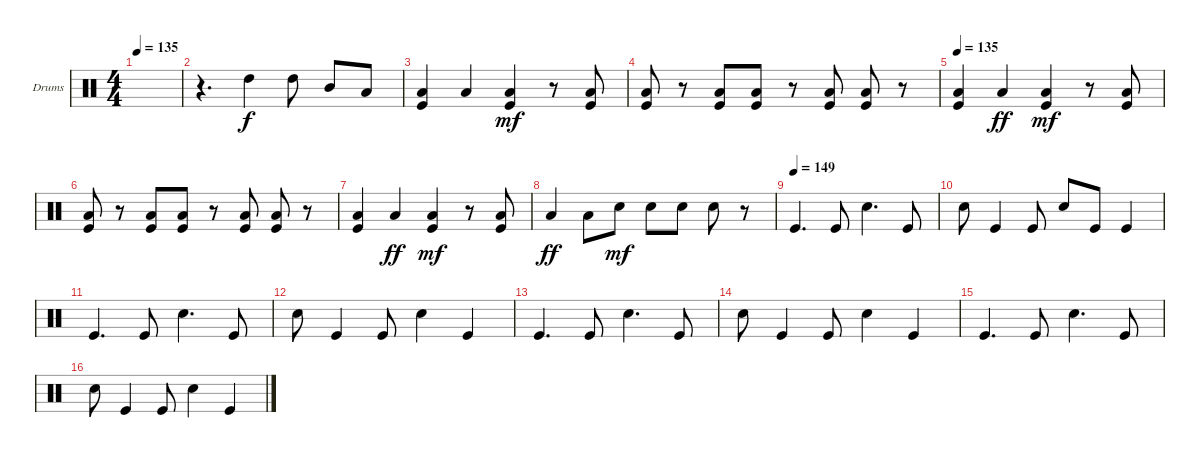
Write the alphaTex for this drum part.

\defaultSystemsLayout 4
\bracketExtendMode groupsimilarinstruments
\firstSystemTrackNameOrientation horizontal
\otherSystemsTrackNameOrientation horizontal
\track ("Drumkit" "Drums") {instrument percussion}
\staff {score}
\articulation defaults
\ts (4 4)
\tempo 135
\clef neutral
\scale
0.472222
\ks c
|
\scale
0.263889 r.4{d} "High Tom (hit)".4 "High Tom (hit)".8 "Mid Tom (hit)".8 "Low Tom (hit)".8 |
\scale
0.263889 ("Low Tom (hit)" "Kick (hit)").4 "Low Tom (hit)".4{dy f} ("Low Tom (hit)" "Kick (hit)").4{dy mf} r.8 ("Kick (hit)" "Low Tom (hit)").8 |
\scale
0.333333 ("Kick (hit)" "Low Tom (hit)").8 r.8 ("Kick (hit)" "Low Tom (hit)").8 ("Kick (hit)" "Low Tom (hit)").8 r.8 ("Kick (hit)" "Low Tom (hit)").8 ("Kick (hit)" "Low Tom (hit)").8 r.8 |
\tempo 135
\scale
0.333333 ("Low Tom (hit)" "Kick (hit)").4 "Low Tom (hit)".4{dy ff} ("Low Tom (hit)" "Kick (hit)").4{dy mf} r.8 ("Kick (hit)" "Low Tom (hit)").8 |
\scale
0.333333 ("Kick (hit)" "Low Tom (hit)").8 r.8 ("Kick (hit)" "Low Tom (hit)").8 ("Kick (hit)" "Low Tom (hit)").8 r.8 ("Kick (hit)" "Low Tom (hit)").8 ("Kick (hit)" "Low Tom (hit)").8 r.8 |
\scale
0.333333 ("Low Tom (hit)" "Kick (hit)").4 "Low Tom (hit)".4{dy ff} ("Low Tom (hit)" "Kick (hit)").4{dy mf} r.8 ("Kick (hit)" "Low Tom (hit)").8 |
\scale
0.333333 "Low Tom (hit)".4{dy ff} "Low Tom (hit)".8 "Snare (hit) 2".8{dy mf} "Snare (hit) 2".8 "Snare (hit) 2".8 "Snare (hit) 2".8 r.8 |
\tempo 149
\scale
0.333333 "Kick (hit)".4{d} "Kick (hit)".8 "Snare (hit) 2".4{d} "Kick (hit)".8 |
\scale
0.333333 "Snare (hit) 2".8 "Kick (hit)".4 "Kick (hit)".8 "Snare (hit) 2".8 "Kick (hit)".8 "Kick (hit)".4 |
\scale
0.333333 "Kick (hit)".4{d} "Kick (hit)".8 "Snare (hit) 2".4{d} "Kick (hit)".8 |
\scale
0.333333 "Snare (hit) 2".8 "Kick (hit)".4 "Kick (hit)".8 "Snare (hit) 2".4 "Kick (hit)".4 |
\scale
0.333333 "Kick (hit)".4{d} "Kick (hit)".8 "Snare (hit) 2".4{d} "Kick (hit)".8 |
\scale
0.333333 "Snare (hit) 2".8 "Kick (hit)".4 "Kick (hit)".8 "Snare (hit) 2".4 "Kick (hit)".4 |
\scale
0.333333 "Kick (hit)".4{d} "Kick (hit)".8 "Snare (hit) 2".4{d} "Kick (hit)".8 |
\scale
0.333333 "Snare (hit) 2".8 "Kick (hit)".4 "Kick (hit)".8 "Snare (hit) 2".4 "Kick (hit)".4
